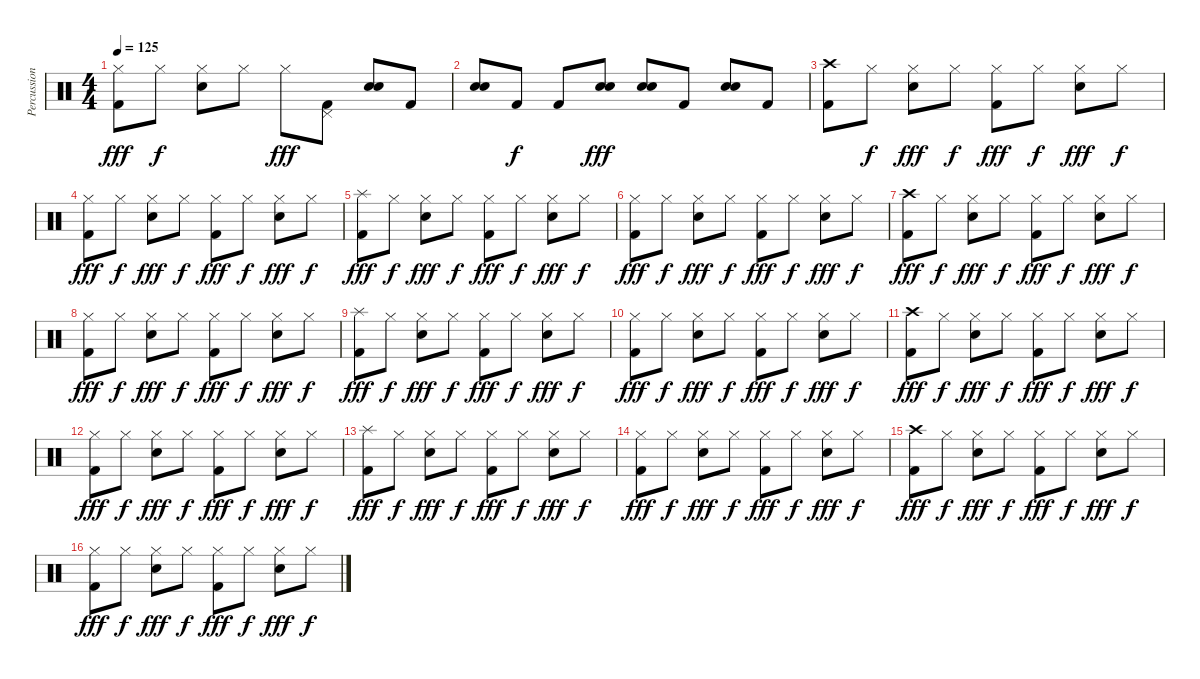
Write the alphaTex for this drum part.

\track ("Percussions" "Percussion") {instrument percussion}
\staff {score}
\articulation defaults
\ts (4 4)
\tempo 125
\clef neutral
\ks c
("Hi-Hat (closed)" "Kick (hit) 2").8{dy fff} "Hi-Hat (closed)".8{dy f} ("Electric Snare (hit)" "Hi-Hat (closed)").8 "Hi-Hat (closed)".8 "Hi-Hat (closed)".8{dy fff} ("Pedal Hi-Hat (hit)" "Kick (hit) 2").8 ("Electric Snare (hit)" "Electric Snare (hit)").8{bd 120} "Kick (hit) 2".8 |
("Electric Snare (hit)" "Electric Snare (hit)").8{bd 120} "Kick (hit) 2".8{dy f} "Kick (hit) 2".8 ("Electric Snare (hit)" "Electric Snare (hit)").8{bd 120 dy fff} ("Electric Snare (hit)" "Electric Snare (hit)").8{bd 120} "Kick (hit) 2".8 ("Electric Snare (hit)" "Electric Snare (hit)").8{bd 120} "Kick (hit) 2".8 |
("Crash high (hit)" "Kick (hit) 2").8 "Hi-Hat (closed)".8{dy f} ("Hi-Hat (closed)" "Electric Snare (hit)").8{dy fff} "Hi-Hat (closed)".8{dy f} ("Hi-Hat (closed)" "Kick (hit) 2").8{dy fff} "Hi-Hat (closed)".8{dy f} ("Hi-Hat (closed)" "Electric Snare (hit)").8{dy fff} "Hi-Hat (closed)".8{dy f} |
("Hi-Hat (closed)" "Kick (hit) 2").8{dy fff} "Hi-Hat (closed)".8{dy f} ("Hi-Hat (closed)" "Electric Snare (hit)").8{dy fff} "Hi-Hat (closed)".8{dy f} ("Hi-Hat (closed)" "Kick (hit) 2").8{dy fff} "Hi-Hat (closed)".8{dy f} ("Hi-Hat (closed)" "Electric Snare (hit)").8{dy fff} "Hi-Hat (closed)".8{dy f} |
("Splash (hit)" "Kick (hit) 2").8{dy fff} "Hi-Hat (closed)".8{dy f} ("Hi-Hat (closed)" "Electric Snare (hit)").8{dy fff} "Hi-Hat (closed)".8{dy f} ("Hi-Hat (closed)" "Kick (hit) 2").8{dy fff} "Hi-Hat (closed)".8{dy f} ("Hi-Hat (closed)" "Electric Snare (hit)").8{dy fff} "Hi-Hat (closed)".8{dy f} |
("Hi-Hat (closed)" "Kick (hit) 2").8{dy fff} "Hi-Hat (closed)".8{dy f} ("Hi-Hat (closed)" "Electric Snare (hit)").8{dy fff} "Hi-Hat (closed)".8{dy f} ("Hi-Hat (closed)" "Kick (hit) 2").8{dy fff} "Hi-Hat (closed)".8{dy f} ("Hi-Hat (closed)" "Electric Snare (hit)").8{dy fff} "Hi-Hat (closed)".8{dy f} |
("Crash high (hit)" "Kick (hit) 2").8{dy fff} "Hi-Hat (closed)".8{dy f} ("Hi-Hat (closed)" "Electric Snare (hit)").8{dy fff} "Hi-Hat (closed)".8{dy f} ("Hi-Hat (closed)" "Kick (hit) 2").8{dy fff} "Hi-Hat (closed)".8{dy f} ("Hi-Hat (closed)" "Electric Snare (hit)").8{dy fff} "Hi-Hat (closed)".8{dy f} |
("Hi-Hat (closed)" "Kick (hit) 2").8{dy fff} "Hi-Hat (closed)".8{dy f} ("Hi-Hat (closed)" "Electric Snare (hit)").8{dy fff} "Hi-Hat (closed)".8{dy f} ("Hi-Hat (closed)" "Kick (hit) 2").8{dy fff} "Hi-Hat (closed)".8{dy f} ("Hi-Hat (closed)" "Electric Snare (hit)").8{dy fff} "Hi-Hat (closed)".8{dy f} |
("Splash (hit)" "Kick (hit) 2").8{dy fff} "Hi-Hat (closed)".8{dy f} ("Hi-Hat (closed)" "Electric Snare (hit)").8{dy fff} "Hi-Hat (closed)".8{dy f} ("Hi-Hat (closed)" "Kick (hit) 2").8{dy fff} "Hi-Hat (closed)".8{dy f} ("Hi-Hat (closed)" "Electric Snare (hit)").8{dy fff} "Hi-Hat (closed)".8{dy f} |
("Hi-Hat (closed)" "Kick (hit) 2").8{dy fff} "Hi-Hat (closed)".8{dy f} ("Hi-Hat (closed)" "Electric Snare (hit)").8{dy fff} "Hi-Hat (closed)".8{dy f} ("Hi-Hat (closed)" "Kick (hit) 2").8{dy fff} "Hi-Hat (closed)".8{dy f} ("Hi-Hat (closed)" "Electric Snare (hit)").8{dy fff} "Hi-Hat (closed)".8{dy f} |
("Crash high (hit)" "Kick (hit) 2").8{dy fff} "Hi-Hat (closed)".8{dy f} ("Hi-Hat (closed)" "Electric Snare (hit)").8{dy fff} "Hi-Hat (closed)".8{dy f} ("Hi-Hat (closed)" "Kick (hit) 2").8{dy fff} "Hi-Hat (closed)".8{dy f} ("Hi-Hat (closed)" "Electric Snare (hit)").8{dy fff} "Hi-Hat (closed)".8{dy f} |
("Hi-Hat (closed)" "Kick (hit) 2").8{dy fff} "Hi-Hat (closed)".8{dy f} ("Hi-Hat (closed)" "Electric Snare (hit)").8{dy fff} "Hi-Hat (closed)".8{dy f} ("Hi-Hat (closed)" "Kick (hit) 2").8{dy fff} "Hi-Hat (closed)".8{dy f} ("Hi-Hat (closed)" "Electric Snare (hit)").8{dy fff} "Hi-Hat (closed)".8{dy f} |
("Splash (hit)" "Kick (hit) 2").8{dy fff} "Hi-Hat (closed)".8{dy f} ("Hi-Hat (closed)" "Electric Snare (hit)").8{dy fff} "Hi-Hat (closed)".8{dy f} ("Hi-Hat (closed)" "Kick (hit) 2").8{dy fff} "Hi-Hat (closed)".8{dy f} ("Hi-Hat (closed)" "Electric Snare (hit)").8{dy fff} "Hi-Hat (closed)".8{dy f} |
("Hi-Hat (closed)" "Kick (hit) 2").8{dy fff} "Hi-Hat (closed)".8{dy f} ("Hi-Hat (closed)" "Electric Snare (hit)").8{dy fff} "Hi-Hat (closed)".8{dy f} ("Hi-Hat (closed)" "Kick (hit) 2").8{dy fff} "Hi-Hat (closed)".8{dy f} ("Hi-Hat (closed)" "Electric Snare (hit)").8{dy fff} "Hi-Hat (closed)".8{dy f} |
("Crash high (hit)" "Kick (hit) 2").8{dy fff} "Hi-Hat (closed)".8{dy f} ("Hi-Hat (closed)" "Electric Snare (hit)").8{dy fff} "Hi-Hat (closed)".8{dy f} ("Hi-Hat (closed)" "Kick (hit) 2").8{dy fff} "Hi-Hat (closed)".8{dy f} ("Hi-Hat (closed)" "Electric Snare (hit)").8{dy fff} "Hi-Hat (closed)".8{dy f} |
("Hi-Hat (closed)" "Kick (hit) 2").8{dy fff} "Hi-Hat (closed)".8{dy f} ("Hi-Hat (closed)" "Electric Snare (hit)").8{dy fff} "Hi-Hat (closed)".8{dy f} ("Hi-Hat (closed)" "Kick (hit) 2").8{dy fff} "Hi-Hat (closed)".8{dy f} ("Hi-Hat (closed)" "Electric Snare (hit)").8{dy fff} "Hi-Hat (closed)".8{dy f}
